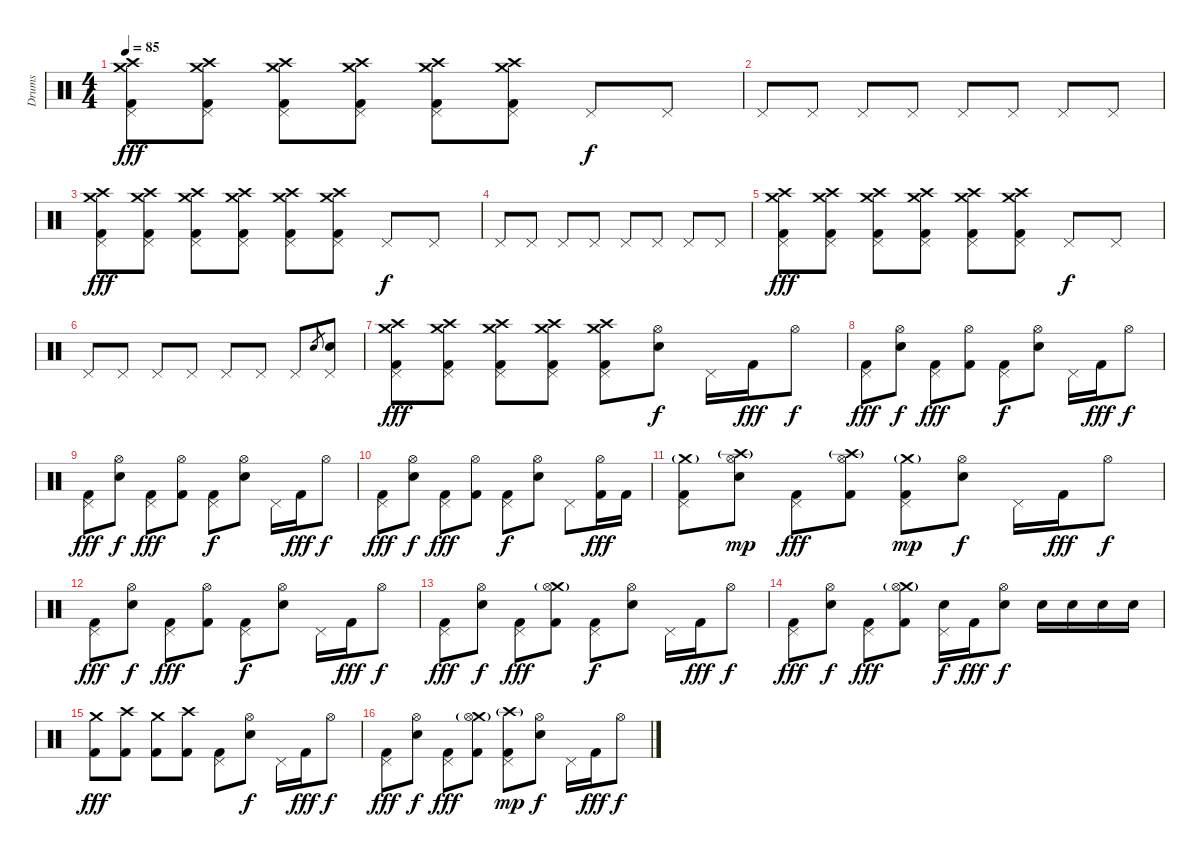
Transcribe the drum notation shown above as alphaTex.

\track ("Drums" "Drums") {instrument percussion}
\staff {score}
\articulation defaults
\ts (4 4)
\tempo 85
\clef neutral
\ks c
("Crash medium (hit)" "Crash high (hit)" "Pedal Hi-Hat (hit)" "Kick (hit) 2").8{dy fff} ("Crash medium (hit)" "Crash high (hit)" "Pedal Hi-Hat (hit)" "Kick (hit) 2").8 ("Crash medium (hit)" "Crash high (hit)" "Pedal Hi-Hat (hit)" "Kick (hit) 2").8 ("Crash medium (hit)" "Crash high (hit)" "Pedal Hi-Hat (hit)" "Kick (hit) 2").8 ("Crash medium (hit)" "Crash high (hit)" "Pedal Hi-Hat (hit)" "Kick (hit) 2").8 ("Crash medium (hit)" "Crash high (hit)" "Pedal Hi-Hat (hit)" "Kick (hit) 2").8 "Pedal Hi-Hat (hit)".8{dy f} "Pedal Hi-Hat (hit)".8 |
"Pedal Hi-Hat (hit)".8 "Pedal Hi-Hat (hit)".8 "Pedal Hi-Hat (hit)".8 "Pedal Hi-Hat (hit)".8 "Pedal Hi-Hat (hit)".8 "Pedal Hi-Hat (hit)".8 "Pedal Hi-Hat (hit)".8 "Pedal Hi-Hat (hit)".8 |
("Crash medium (hit)" "Crash high (hit)" "Pedal Hi-Hat (hit)" "Kick (hit) 2").8{dy fff} ("Crash medium (hit)" "Crash high (hit)" "Pedal Hi-Hat (hit)" "Kick (hit) 2").8 ("Crash medium (hit)" "Crash high (hit)" "Pedal Hi-Hat (hit)" "Kick (hit) 2").8 ("Crash medium (hit)" "Crash high (hit)" "Pedal Hi-Hat (hit)" "Kick (hit) 2").8 ("Crash medium (hit)" "Crash high (hit)" "Pedal Hi-Hat (hit)" "Kick (hit) 2").8 ("Crash medium (hit)" "Crash high (hit)" "Pedal Hi-Hat (hit)" "Kick (hit) 2").8 "Pedal Hi-Hat (hit)".8{dy f} "Pedal Hi-Hat (hit)".8 |
"Pedal Hi-Hat (hit)".8 "Pedal Hi-Hat (hit)".8 "Pedal Hi-Hat (hit)".8 "Pedal Hi-Hat (hit)".8 "Pedal Hi-Hat (hit)".8 "Pedal Hi-Hat (hit)".8 "Pedal Hi-Hat (hit)".8 "Pedal Hi-Hat (hit)".8 |
("Crash medium (hit)" "Crash high (hit)" "Pedal Hi-Hat (hit)" "Kick (hit) 2").8{dy fff} ("Crash medium (hit)" "Crash high (hit)" "Pedal Hi-Hat (hit)" "Kick (hit) 2").8 ("Crash medium (hit)" "Crash high (hit)" "Pedal Hi-Hat (hit)" "Kick (hit) 2").8 ("Crash medium (hit)" "Crash high (hit)" "Pedal Hi-Hat (hit)" "Kick (hit) 2").8 ("Crash medium (hit)" "Crash high (hit)" "Pedal Hi-Hat (hit)" "Kick (hit) 2").8 ("Crash medium (hit)" "Crash high (hit)" "Pedal Hi-Hat (hit)" "Kick (hit) 2").8 "Pedal Hi-Hat (hit)".8{dy f} "Pedal Hi-Hat (hit)".8 |
"Pedal Hi-Hat (hit)".8 "Pedal Hi-Hat (hit)".8 "Pedal Hi-Hat (hit)".8 "Pedal Hi-Hat (hit)".8 "Pedal Hi-Hat (hit)".8 "Pedal Hi-Hat (hit)".8 "Pedal Hi-Hat (hit)".8 "Electric Snare (hit)".8{gr} ("Electric Snare (hit)" "Pedal Hi-Hat (hit)").8 |
("Crash medium (hit)" "Crash high (hit)" "Pedal Hi-Hat (hit)" "Kick (hit) 2").8{dy fff} ("Crash medium (hit)" "Crash high (hit)" "Pedal Hi-Hat (hit)" "Kick (hit) 2").8 ("Crash medium (hit)" "Crash high (hit)" "Pedal Hi-Hat (hit)" "Kick (hit) 2").8 ("Crash medium (hit)" "Crash high (hit)" "Pedal Hi-Hat (hit)" "Kick (hit) 2").8 ("Crash medium (hit)" "Crash high (hit)" "Pedal Hi-Hat (hit)" "Kick (hit) 2").8 ("Electric Snare (hit)" "Hi-Hat (open)").8{dy f} "Pedal Hi-Hat (hit)".16 "Kick (hit) 2".16{dy fff} "Hi-Hat (open)".8{dy f} |
("Pedal Hi-Hat (hit)" "Kick (hit) 2").8{dy fff} ("Hi-Hat (open)" "Electric Snare (hit)").8{dy f} ("Pedal Hi-Hat (hit)" "Kick (hit) 2").8{dy fff} ("Hi-Hat (open)" "Kick (hit) 2").8 ("Pedal Hi-Hat (hit)" "Kick (hit) 2").8{dy f} ("Hi-Hat (open)" "Electric Snare (hit)").8 "Pedal Hi-Hat (hit)".16 "Kick (hit) 2".16{dy fff} "Hi-Hat (open)".8{dy f} |
("Pedal Hi-Hat (hit)" "Kick (hit) 2").8{dy fff} ("Hi-Hat (open)" "Electric Snare (hit)").8{dy f} ("Pedal Hi-Hat (hit)" "Kick (hit) 2").8{dy fff} ("Hi-Hat (open)" "Kick (hit) 2").8 ("Pedal Hi-Hat (hit)" "Kick (hit) 2").8{dy f} ("Hi-Hat (open)" "Electric Snare (hit)").8 "Pedal Hi-Hat (hit)".16 "Kick (hit) 2".16{dy fff} "Hi-Hat (open)".8{dy f} |
("Pedal Hi-Hat (hit)" "Kick (hit) 2").8{dy fff} ("Hi-Hat (open)" "Electric Snare (hit)").8{dy f} ("Pedal Hi-Hat (hit)" "Kick (hit) 2").8{dy fff} ("Hi-Hat (open)" "Kick (hit) 2").8 ("Pedal Hi-Hat (hit)" "Kick (hit) 2").8{dy f} ("Hi-Hat (open)" "Electric Snare (hit)").8 "Pedal Hi-Hat (hit)".8 ("Hi-Hat (open)" "Kick (hit) 2").16{dy fff} "Kick (hit) 2".16 |
("Crash medium (hit)"{g} "Pedal Hi-Hat (hit)" "Kick (hit) 2").8 ("Crash high (hit)"{g} "Hi-Hat (open)" "Electric Snare (hit)").8{dy mp} ("Pedal Hi-Hat (hit)" "Kick (hit) 2").8{dy fff} ("Crash high (hit)"{g} "Hi-Hat (open)" "Kick (hit) 2").8 ("Crash medium (hit)"{g} "Pedal Hi-Hat (hit)" "Kick (hit) 2").8{dy mp} ("Hi-Hat (open)" "Electric Snare (hit)").8{dy f} "Pedal Hi-Hat (hit)".16 "Kick (hit) 2".16{dy fff} "Hi-Hat (open)".8{dy f} |
("Pedal Hi-Hat (hit)" "Kick (hit) 2").8{dy fff} ("Hi-Hat (open)" "Electric Snare (hit)").8{dy f} ("Pedal Hi-Hat (hit)" "Kick (hit) 2").8{dy fff} ("Hi-Hat (open)" "Kick (hit) 2").8 ("Pedal Hi-Hat (hit)" "Kick (hit) 2").8{dy f} ("Hi-Hat (open)" "Electric Snare (hit)").8 "Pedal Hi-Hat (hit)".16 "Kick (hit) 2".16{dy fff} "Hi-Hat (open)".8{dy f} |
("Pedal Hi-Hat (hit)" "Kick (hit) 2").8{dy fff} ("Hi-Hat (open)" "Electric Snare (hit)").8{dy f} ("Pedal Hi-Hat (hit)" "Kick (hit) 2").8{dy fff} ("Crash medium (hit)"{g} "Hi-Hat (open)" "Kick (hit) 2").8 ("Pedal Hi-Hat (hit)" "Kick (hit) 2").8{dy f} ("Hi-Hat (open)" "Electric Snare (hit)").8 "Pedal Hi-Hat (hit)".16 "Kick (hit) 2".16{dy fff} "Hi-Hat (open)".8{dy f} |
("Pedal Hi-Hat (hit)" "Kick (hit) 2").8{dy fff} ("Hi-Hat (open)" "Electric Snare (hit)").8{dy f} ("Pedal Hi-Hat (hit)" "Kick (hit) 2").8{dy fff} ("Crash medium (hit)"{g} "Hi-Hat (open)" "Kick (hit) 2").8 ("Pedal Hi-Hat (hit)" "Electric Snare (hit)").16{dy f} "Kick (hit) 2".16{dy fff} ("Hi-Hat (open)" "Electric Snare (hit)").8{dy f} "Electric Snare (hit)".16 "Electric Snare (hit)".16 "Electric Snare (hit)".16 "Electric Snare (hit)".16 |
("Crash medium (hit)" "Kick (hit) 2").8{dy fff} ("Crash high (hit)" "Kick (hit) 2").8 ("Crash medium (hit)" "Kick (hit) 2").8 ("Crash high (hit)" "Kick (hit) 2").8 ("Pedal Hi-Hat (hit)" "Kick (hit) 2").8 ("Hi-Hat (open)" "Electric Snare (hit)").8{dy f} "Pedal Hi-Hat (hit)".16 "Kick (hit) 2".16{dy fff} "Hi-Hat (open)".8{dy f} |
("Pedal Hi-Hat (hit)" "Kick (hit) 2").8{dy fff} ("Hi-Hat (open)" "Electric Snare (hit)").8{dy f} ("Pedal Hi-Hat (hit)" "Kick (hit) 2").8{dy fff} ("Crash medium (hit)"{g} "Hi-Hat (open)" "Kick (hit) 2").8 ("Crash high (hit)"{g} "Pedal Hi-Hat (hit)" "Kick (hit) 2").8{dy mp} ("Hi-Hat (open)" "Electric Snare (hit)").8{dy f} "Pedal Hi-Hat (hit)".16 "Kick (hit) 2".16{dy fff} "Hi-Hat (open)".8{dy f}
